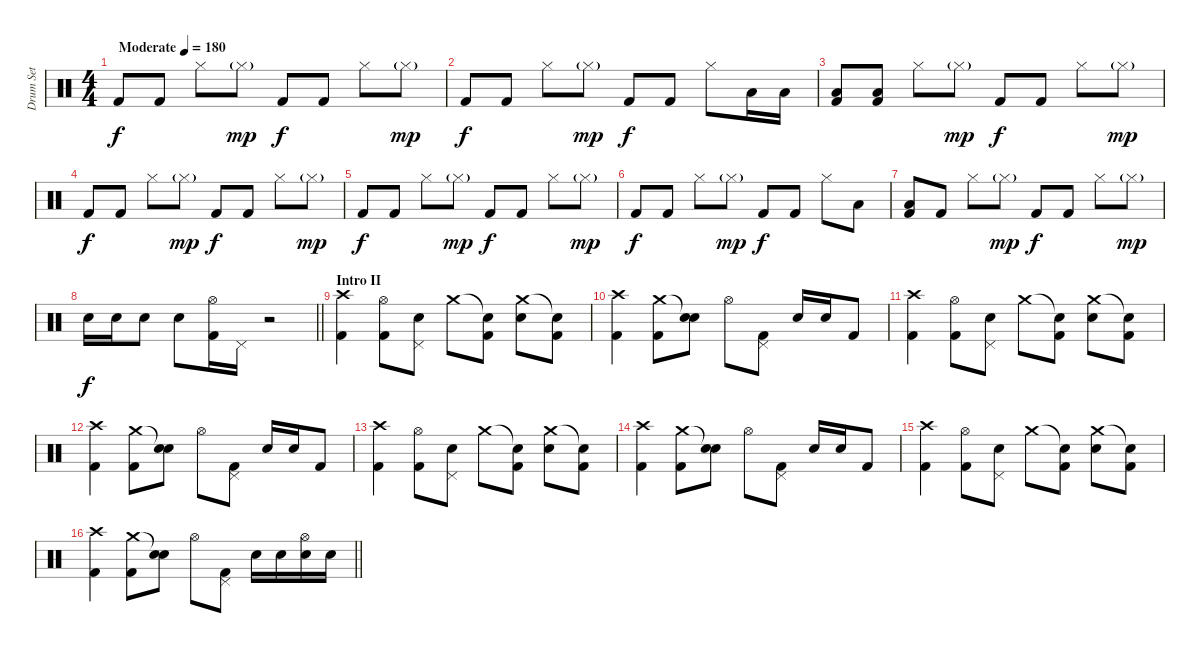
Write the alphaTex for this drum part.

\track ("Drum Set" "Drum Set") {instrument percussion}
\staff {score}
\articulation defaults
\ts (4 4)
\tempo (180 "Moderate")
\clef neutral
\ks c "Kick (hit) 2".8{dy f} "Kick (hit) 2".8 "Hi-Hat (closed)".8 "Hi-Hat (closed)"{g}.8{dy mp} "Kick (hit) 2".8{dy f} "Kick (hit) 2".8 "Hi-Hat (closed)".8 "Hi-Hat (closed)"{g}.8{dy mp}
|
"Kick (hit) 2".8{dy f} "Kick (hit) 2".8 "Hi-Hat (closed)".8 "Hi-Hat (closed)"{g}.8{dy mp} "Kick (hit) 2".8{dy f} "Kick (hit) 2".8 "Hi-Hat (closed)".8 "Low Tom (hit)".16 "Low Tom (hit)".16 |
("Kick (hit) 2" "Low Floor Tom (hit)").8 ("Kick (hit) 2" "Low Floor Tom (hit)").8 "Hi-Hat (closed)".8 "Hi-Hat (closed)"{g}.8{dy mp} "Kick (hit) 2".8{dy f} "Kick (hit) 2".8 "Hi-Hat (closed)".8 "Hi-Hat (closed)"{g}.8{dy mp} |
"Kick (hit) 2".8{dy f} "Kick (hit) 2".8 "Hi-Hat (closed)".8 "Hi-Hat (closed)"{g}.8{dy mp} "Kick (hit) 2".8{dy f} "Kick (hit) 2".8 "Hi-Hat (closed)".8 "Hi-Hat (closed)"{g}.8{dy mp} |
"Kick (hit) 2".8{dy f} "Kick (hit) 2".8 "Hi-Hat (closed)".8 "Hi-Hat (closed)"{g}.8{dy mp} "Kick (hit) 2".8{dy f} "Kick (hit) 2".8 "Hi-Hat (closed)".8 "Hi-Hat (closed)"{g}.8{dy mp} |
"Kick (hit) 2".8{dy f} "Kick (hit) 2".8 "Hi-Hat (closed)".8 "Hi-Hat (closed)"{g}.8{dy mp} "Kick (hit) 2".8{dy f} "Kick (hit) 2".8 "Hi-Hat (closed)".8 "Low Tom (hit)".8 |
("Kick (hit) 2" "Low Floor Tom (hit)").8 "Kick (hit) 2".8 "Hi-Hat (closed)".8 "Hi-Hat (closed)"{g}.8{dy mp} "Kick (hit) 2".8{dy f} "Kick (hit) 2".8 "Hi-Hat (closed)".8 "Hi-Hat (closed)"{g}.8{dy mp} |
\barLineRight lightlight "Electric Snare (hit)".16{dy f} "Electric Snare (hit)".16 "Electric Snare (hit)".8 "Electric Snare (hit)".8
("Hi-Hat (open)" "Kick (hit) 2").16 "Pedal Hi-Hat (hit)".16 r.2 |
\section ("" "Intro II")
("Crash high (hit)" "Kick (hit) 2").4 ("Hi-Hat (open)" "Kick (hit) 2").8 ("Pedal Hi-Hat (hit)" "Electric Snare (hit)").8 "Crash medium (hit)".8 ("Snare (hit)"{t} "Kick (hit) 2").8 ("Crash medium (hit)" "Electric Snare (hit)").8 ("Snare (hit)"{t} "Kick (hit) 2").8 |
("Crash high (hit)" "Kick (hit) 2").4 ("Crash medium (hit)" "Kick (hit) 2").8 ("Electric Snare (hit)"{t} "Electric Snare (hit)").8 "Hi-Hat (open)".8 ("Pedal Hi-Hat (hit)" "Kick (hit) 2").8 "Electric Snare (hit)".16 "Electric Snare (hit)".16 "Kick (hit) 2".8 |
("Crash high (hit)" "Kick (hit) 2").4 ("Hi-Hat (open)" "Kick (hit) 2").8 ("Pedal Hi-Hat (hit)" "Electric Snare (hit)").8 "Crash medium (hit)".8 ("Snare (hit)"{t} "Kick (hit) 2").8 ("Crash medium (hit)" "Electric Snare (hit)").8 ("Snare (hit)"{t} "Kick (hit) 2").8 |
("Crash high (hit)" "Kick (hit) 2").4 ("Crash medium (hit)" "Kick (hit) 2").8 ("Electric Snare (hit)"{t} "Electric Snare (hit)").8 "Hi-Hat (open)".8 ("Pedal Hi-Hat (hit)" "Kick (hit) 2").8 "Electric Snare (hit)".16 "Electric Snare (hit)".16 "Kick (hit) 2".8 |
("Crash high (hit)" "Kick (hit) 2").4 ("Hi-Hat (open)" "Kick (hit) 2").8 ("Pedal Hi-Hat (hit)" "Electric Snare (hit)").8 "Crash medium (hit)".8 ("Snare (hit)"{t} "Kick (hit) 2").8 ("Crash medium (hit)" "Electric Snare (hit)").8 ("Snare (hit)"{t} "Kick (hit) 2").8 |
("Crash high (hit)" "Kick (hit) 2").4 ("Crash medium (hit)" "Kick (hit) 2").8 ("Electric Snare (hit)"{t} "Electric Snare (hit)").8 "Hi-Hat (open)".8 ("Pedal Hi-Hat (hit)" "Kick (hit) 2").8 "Electric Snare (hit)".16 "Electric Snare (hit)".16 "Kick (hit) 2".8 |
("Crash high (hit)" "Kick (hit) 2").4 ("Hi-Hat (open)" "Kick (hit) 2").8 ("Pedal Hi-Hat (hit)" "Electric Snare (hit)").8 "Crash medium (hit)".8 ("Snare (hit)"{t} "Kick (hit) 2").8 ("Crash medium (hit)" "Electric Snare (hit)").8 ("Snare (hit)"{t} "Kick (hit) 2").8 |
\barLineRight lightlight
("Crash high (hit)" "Kick (hit) 2").4 ("Crash medium (hit)" "Kick (hit) 2").8 ("Electric Snare (hit)"{t} "Electric Snare (hit)").8 "Hi-Hat (open)".8 ("Pedal Hi-Hat (hit)" "Kick (hit) 2").8 "Electric Snare (hit)".16 "Electric Snare (hit)".16 ("Electric Snare (hit)" "Hi-Hat (open)").16 "Electric Snare (hit)".16
